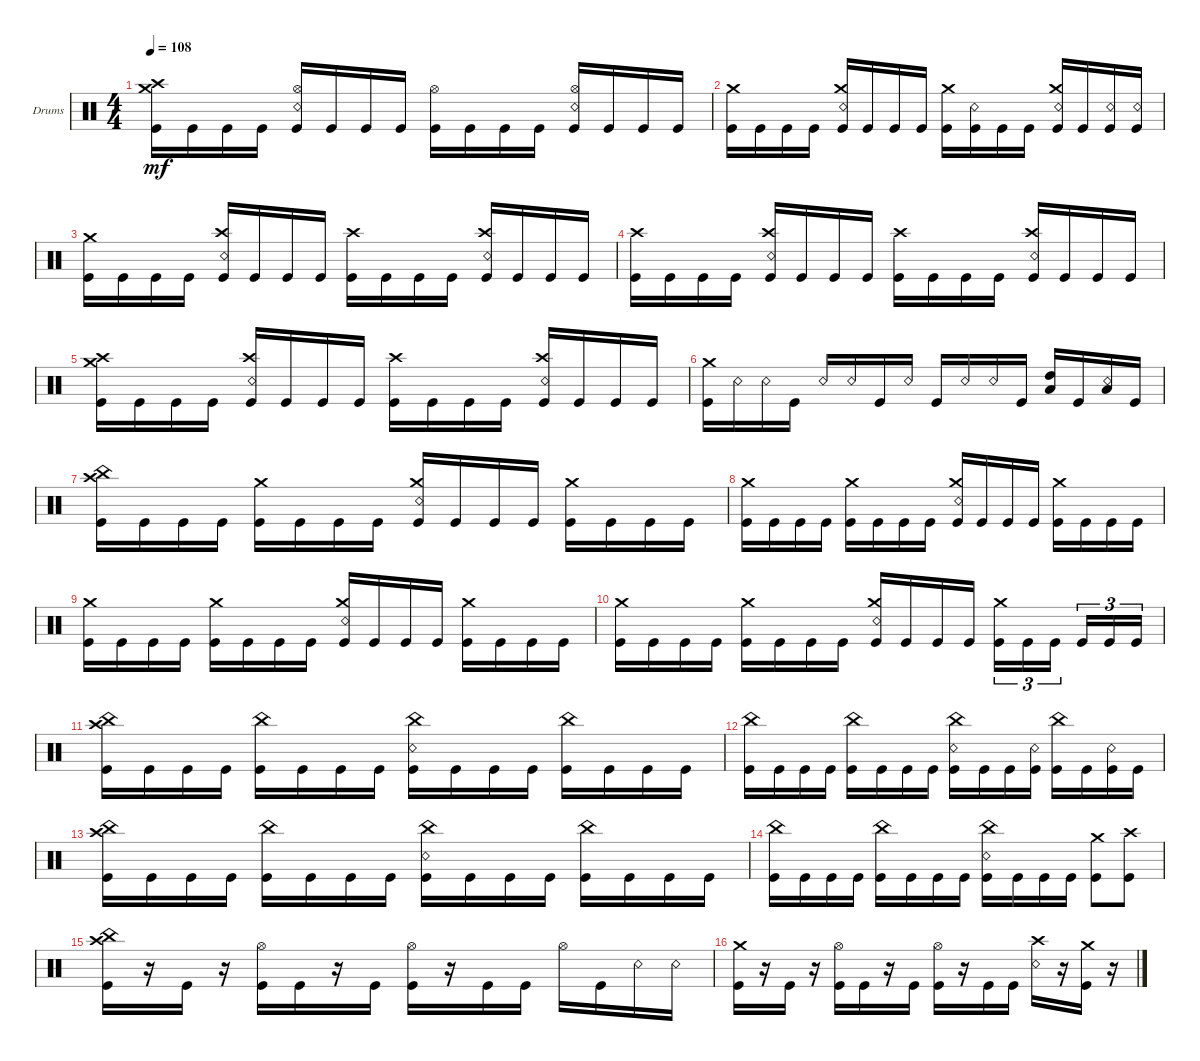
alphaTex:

\defaultSystemsLayout 4
\bracketExtendMode groupsimilarinstruments
\firstSystemTrackNameOrientation horizontal
\otherSystemsTrackNameOrientation horizontal
\track ("Drumkit" "Drums") {instrument percussion}
\staff {score}
\articulation defaults
\ts (4 4)
\tempo 108
\clef neutral
\ks c
("Kick (hit)" "Crash high (hit)" "Crash medium (hit)").16{dy mf} "Kick (hit)".16 "Kick (hit)".16 "Kick (hit)".16 ("Kick (hit)" "Hi-Hat (open)" "Snare (rim shot)").16 "Kick (hit)".16 "Kick (hit)".16 "Kick (hit)".16 ("Kick (hit)" "Hi-Hat (open)").16 "Kick (hit)".16 "Kick (hit)".16 "Kick (hit)".16 ("Kick (hit)" "Snare (rim shot)" "Hi-Hat (open)").16 "Kick (hit)".16 "Kick (hit)".16 "Kick (hit)".16 |
("Kick (hit)" "Crash medium (hit)").16 "Kick (hit)".16 "Kick (hit)".16 "Kick (hit)".16 ("Kick (hit)" "Snare (rim shot)" "Crash medium (hit)").16 "Kick (hit)".16 "Kick (hit)".16 "Kick (hit)".16 ("Kick (hit)" "Crash medium (hit)").16 ("Kick (hit)" "Snare (rim shot)").16 "Kick (hit)".16 "Kick (hit)".16 ("Kick (hit)" "Snare (rim shot)" "Crash medium (hit)").16 "Kick (hit)".16 ("Kick (hit)" "Snare (rim shot)").16 ("Kick (hit)" "Snare (rim shot)").16 |
("Kick (hit)" "Crash medium (hit)").16 "Kick (hit)".16 "Kick (hit)".16 "Kick (hit)".16 ("Kick (hit)" "Snare (rim shot)" "Crash high (hit)").16 "Kick (hit)".16 "Kick (hit)".16 "Kick (hit)".16 ("Kick (hit)" "Crash high (hit)").16 "Kick (hit)".16 "Kick (hit)".16 "Kick (hit)".16 ("Kick (hit)" "Snare (rim shot)" "Crash high (hit)").16 "Kick (hit)".16 "Kick (hit)".16 "Kick (hit)".16 |
("Kick (hit)" "Crash high (hit)").16 "Kick (hit)".16 "Kick (hit)".16 "Kick (hit)".16 ("Kick (hit)" "Snare (rim shot)" "Crash high (hit)").16 "Kick (hit)".16 "Kick (hit)".16 "Kick (hit)".16 ("Kick (hit)" "Crash high (hit)").16 "Kick (hit)".16 "Kick (hit)".16 "Kick (hit)".16 ("Kick (hit)" "Snare (rim shot)" "Crash high (hit)").16 "Kick (hit)".16 "Kick (hit)".16 "Kick (hit)".16 |
("Kick (hit)" "Crash medium (hit)" "Crash high (hit)").16 "Kick (hit)".16 "Kick (hit)".16 "Kick (hit)".16 ("Kick (hit)" "Snare (rim shot)" "Crash high (hit)").16 "Kick (hit)".16 "Kick (hit)".16 "Kick (hit)".16 ("Kick (hit)" "Crash high (hit)").16 "Kick (hit)".16 "Kick (hit)".16 "Kick (hit)".16 ("Kick (hit)" "Snare (rim shot)" "Crash high (hit)").16 "Kick (hit)".16 "Kick (hit)".16 "Kick (hit)".16 |
("Kick (hit)" "Crash medium (hit)").16 "Snare (rim shot)".16 "Snare (rim shot)".16 "Kick (hit)".16 "Snare (rim shot)".16 "Snare (rim shot)".16 "Kick (hit)".16 "Snare (rim shot)".16 "Kick (hit)".16 "Snare (rim shot)".16 "Snare (rim shot)".16 "Kick (hit)".16 ("High Tom (hit)" "Low Tom (hit)").16 "Kick (hit)".16 ("Snare (rim shot)" "Low Tom (hit)").16 "Kick (hit)".16 |
("Kick (hit)" "Crash high (hit)" "China (hit)").16 "Kick (hit)".16 "Kick (hit)".16 "Kick (hit)".16 ("Kick (hit)" "Crash medium (hit)").16 "Kick (hit)".16 "Kick (hit)".16 "Kick (hit)".16 ("Kick (hit)" "Snare (rim shot)" "Crash medium (hit)").16 "Kick (hit)".16 "Kick (hit)".16 "Kick (hit)".16 ("Kick (hit)" "Crash medium (hit)").16 "Kick (hit)".16 "Kick (hit)".16 "Kick (hit)".16 |
("Kick (hit)" "Crash medium (hit)").16 "Kick (hit)".16 "Kick (hit)".16 "Kick (hit)".16 ("Kick (hit)" "Crash medium (hit)").16 "Kick (hit)".16 "Kick (hit)".16 "Kick (hit)".16 ("Kick (hit)" "Snare (rim shot)" "Crash medium (hit)").16 "Kick (hit)".16 "Kick (hit)".16 "Kick (hit)".16 ("Kick (hit)" "Crash medium (hit)").16 "Kick (hit)".16 "Kick (hit)".16 "Kick (hit)".16 |
("Kick (hit)" "Crash medium (hit)").16 "Kick (hit)".16 "Kick (hit)".16 "Kick (hit)".16 ("Kick (hit)" "Crash medium (hit)").16 "Kick (hit)".16 "Kick (hit)".16 "Kick (hit)".16 ("Kick (hit)" "Snare (rim shot)" "Crash medium (hit)").16 "Kick (hit)".16 "Kick (hit)".16 "Kick (hit)".16 ("Kick (hit)" "Crash medium (hit)").16 "Kick (hit)".16 "Kick (hit)".16 "Kick (hit)".16 |
("Kick (hit)" "Crash medium (hit)").16 "Kick (hit)".16 "Kick (hit)".16 "Kick (hit)".16 ("Kick (hit)" "Crash medium (hit)").16 "Kick (hit)".16 "Kick (hit)".16 "Kick (hit)".16 ("Kick (hit)" "Snare (rim shot)" "Crash medium (hit)").16 "Kick (hit)".16 "Kick (hit)".16 "Kick (hit)".16 ("Kick (hit)" "Crash medium (hit)").16{tu (3 2)} "Kick (hit)".16{tu (3 2)} "Kick (hit)".16{tu (3 2)} "Kick (hit)".16{tu (3 2)} "Kick (hit)".16{tu (3 2)} "Kick (hit)".16{tu (3 2)} |
("Kick (hit)" "China (hit)" "Crash high (hit)").16 "Kick (hit)".16 "Kick (hit)".16 "Kick (hit)".16 ("Kick (hit)" "China (hit)").16 "Kick (hit)".16 "Kick (hit)".16 "Kick (hit)".16 ("Kick (hit)" "Snare (rim shot)" "China (hit)").16 "Kick (hit)".16 "Kick (hit)".16 "Kick (hit)".16 ("Kick (hit)" "China (hit)").16 "Kick (hit)".16 "Kick (hit)".16 "Kick (hit)".16 |
("Kick (hit)" "China (hit)").16 "Kick (hit)".16 "Kick (hit)".16 "Kick (hit)".16 ("Kick (hit)" "China (hit)").16 "Kick (hit)".16 "Kick (hit)".16 "Kick (hit)".16 ("Kick (hit)" "Snare (rim shot)" "China (hit)").16 "Kick (hit)".16 "Kick (hit)".16 ("Kick (hit)" "Snare (rim shot)").16 ("Kick (hit)" "China (hit)").16 "Kick (hit)".16 ("Kick (hit)" "Snare (rim shot)").16 "Kick (hit)".16 |
("Kick (hit)" "China (hit)" "Crash high (hit)").16 "Kick (hit)".16 "Kick (hit)".16 "Kick (hit)".16 ("Kick (hit)" "China (hit)").16 "Kick (hit)".16 "Kick (hit)".16 "Kick (hit)".16 ("Kick (hit)" "Snare (rim shot)" "China (hit)").16 "Kick (hit)".16 "Kick (hit)".16 "Kick (hit)".16 ("Kick (hit)" "China (hit)").16 "Kick (hit)".16 "Kick (hit)".16 "Kick (hit)".16 |
("Kick (hit)" "China (hit)").16 "Kick (hit)".16 "Kick (hit)".16 "Kick (hit)".16 ("Kick (hit)" "China (hit)").16 "Kick (hit)".16 "Kick (hit)".16 "Kick (hit)".16 ("Kick (hit)" "Snare (rim shot)" "China (hit)").16 "Kick (hit)".16 "Kick (hit)".16 "Kick (hit)".16 ("Kick (hit)" "Crash medium (hit)").8 ("Kick (hit)" "Crash high (hit)").8 |
("Kick (hit)" "China (hit)" "Crash high (hit)").16 r.16 "Kick (hit)".16 r.16 ("Kick (hit)" "Hi-Hat (open)").16 "Kick (hit)".16 r.16 "Kick (hit)".16 ("Kick (hit)" "Hi-Hat (open)").16 r.16 "Kick (hit)".16 "Kick (hit)".16 "Hi-Hat (open)".16 "Kick (hit)".16 "Snare (rim shot)".16 "Snare (rim shot)".16 |
("Kick (hit)" "Crash medium (hit)").16 r.16 "Kick (hit)".16 r.16 ("Kick (hit)" "Hi-Hat (open)").16 "Kick (hit)".16 r.16 "Kick (hit)".16 ("Kick (hit)" "Hi-Hat (open)").16 r.16 "Kick (hit)".16 "Kick (hit)".16 ("Snare (rim shot)" "Crash high (hit)").16 r.16 ("Kick (hit)" "Crash medium (hit)").16 r.16
